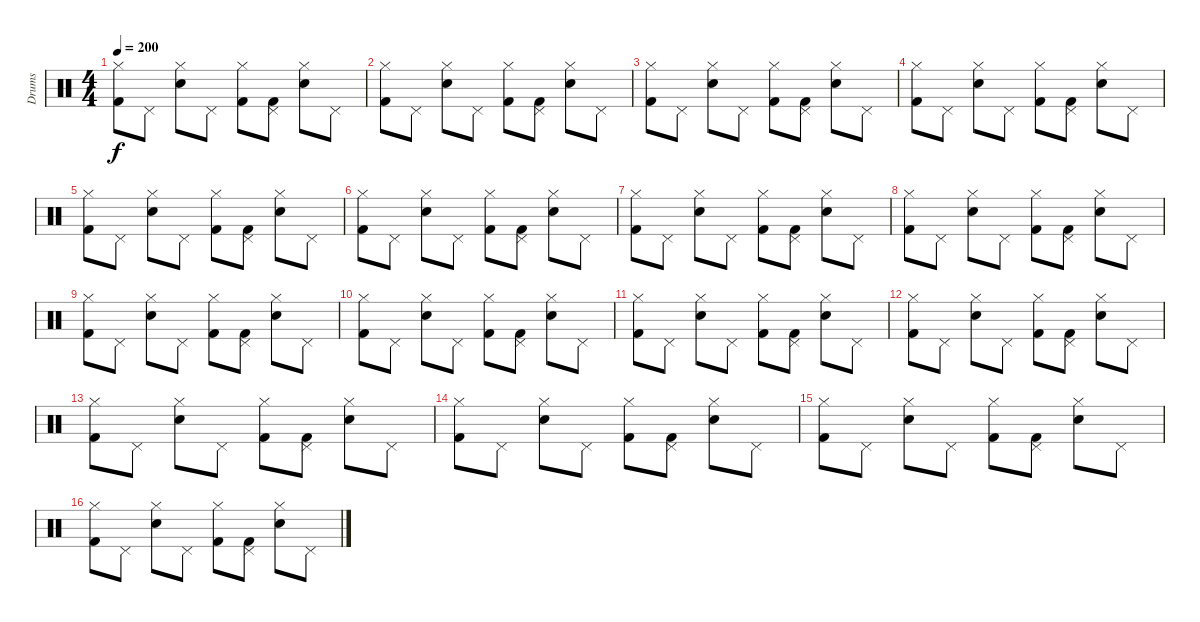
\track ("Drums" "Drums") {instrument percussion}
\staff {score}
\articulation defaults
\ts (4 4)
\tempo 200
\clef neutral
\ks c
("Hi-Hat (closed)" "Kick (hit) 2").8{dy f} "Pedal Hi-Hat (hit)".8 ("Hi-Hat (closed)" "Snare (hit) 2").8 "Pedal Hi-Hat (hit)".8 ("Hi-Hat (closed)" "Kick (hit) 2").8 ("Pedal Hi-Hat (hit)" "Kick (hit) 2").8 ("Hi-Hat (closed)" "Snare (hit) 2").8 "Pedal Hi-Hat (hit)".8 |
("Hi-Hat (closed)" "Kick (hit) 2").8 "Pedal Hi-Hat (hit)".8 ("Hi-Hat (closed)" "Snare (hit) 2").8 "Pedal Hi-Hat (hit)".8 ("Hi-Hat (closed)" "Kick (hit) 2").8 ("Pedal Hi-Hat (hit)" "Kick (hit) 2").8 ("Hi-Hat (closed)" "Snare (hit) 2").8 "Pedal Hi-Hat (hit)".8 |
("Hi-Hat (closed)" "Kick (hit) 2").8 "Pedal Hi-Hat (hit)".8 ("Hi-Hat (closed)" "Snare (hit) 2").8 "Pedal Hi-Hat (hit)".8 ("Hi-Hat (closed)" "Kick (hit) 2").8 ("Pedal Hi-Hat (hit)" "Kick (hit) 2").8 ("Hi-Hat (closed)" "Snare (hit) 2").8 "Pedal Hi-Hat (hit)".8 |
("Hi-Hat (closed)" "Kick (hit) 2").8 "Pedal Hi-Hat (hit)".8 ("Hi-Hat (closed)" "Snare (hit) 2").8 "Pedal Hi-Hat (hit)".8 ("Hi-Hat (closed)" "Kick (hit) 2").8 ("Pedal Hi-Hat (hit)" "Kick (hit) 2").8 ("Hi-Hat (closed)" "Snare (hit) 2").8 "Pedal Hi-Hat (hit)".8 |
("Hi-Hat (closed)" "Kick (hit) 2").8 "Pedal Hi-Hat (hit)".8 ("Hi-Hat (closed)" "Snare (hit) 2").8 "Pedal Hi-Hat (hit)".8 ("Hi-Hat (closed)" "Kick (hit) 2").8 ("Pedal Hi-Hat (hit)" "Kick (hit) 2").8 ("Hi-Hat (closed)" "Snare (hit) 2").8 "Pedal Hi-Hat (hit)".8 |
("Hi-Hat (closed)" "Kick (hit) 2").8 "Pedal Hi-Hat (hit)".8 ("Hi-Hat (closed)" "Snare (hit) 2").8 "Pedal Hi-Hat (hit)".8 ("Hi-Hat (closed)" "Kick (hit) 2").8 ("Pedal Hi-Hat (hit)" "Kick (hit) 2").8 ("Hi-Hat (closed)" "Snare (hit) 2").8 "Pedal Hi-Hat (hit)".8 |
("Hi-Hat (closed)" "Kick (hit) 2").8 "Pedal Hi-Hat (hit)".8 ("Hi-Hat (closed)" "Snare (hit) 2").8 "Pedal Hi-Hat (hit)".8 ("Hi-Hat (closed)" "Kick (hit) 2").8 ("Pedal Hi-Hat (hit)" "Kick (hit) 2").8 ("Hi-Hat (closed)" "Snare (hit) 2").8 "Pedal Hi-Hat (hit)".8 |
("Hi-Hat (closed)" "Kick (hit) 2").8 "Pedal Hi-Hat (hit)".8 ("Hi-Hat (closed)" "Snare (hit) 2").8 "Pedal Hi-Hat (hit)".8 ("Hi-Hat (closed)" "Kick (hit) 2").8 ("Pedal Hi-Hat (hit)" "Kick (hit) 2").8 ("Hi-Hat (closed)" "Snare (hit) 2").8 "Pedal Hi-Hat (hit)".8 |
("Hi-Hat (closed)" "Kick (hit) 2").8 "Pedal Hi-Hat (hit)".8 ("Hi-Hat (closed)" "Snare (hit) 2").8 "Pedal Hi-Hat (hit)".8 ("Hi-Hat (closed)" "Kick (hit) 2").8 ("Pedal Hi-Hat (hit)" "Kick (hit) 2").8 ("Hi-Hat (closed)" "Snare (hit) 2").8 "Pedal Hi-Hat (hit)".8 |
("Hi-Hat (closed)" "Kick (hit) 2").8 "Pedal Hi-Hat (hit)".8 ("Hi-Hat (closed)" "Snare (hit) 2").8 "Pedal Hi-Hat (hit)".8 ("Hi-Hat (closed)" "Kick (hit) 2").8 ("Pedal Hi-Hat (hit)" "Kick (hit) 2").8 ("Hi-Hat (closed)" "Snare (hit) 2").8 "Pedal Hi-Hat (hit)".8 |
("Hi-Hat (closed)" "Kick (hit) 2").8 "Pedal Hi-Hat (hit)".8 ("Hi-Hat (closed)" "Snare (hit) 2").8 "Pedal Hi-Hat (hit)".8 ("Hi-Hat (closed)" "Kick (hit) 2").8 ("Pedal Hi-Hat (hit)" "Kick (hit) 2").8 ("Hi-Hat (closed)" "Snare (hit) 2").8 "Pedal Hi-Hat (hit)".8 |
("Hi-Hat (closed)" "Kick (hit) 2").8 "Pedal Hi-Hat (hit)".8 ("Hi-Hat (closed)" "Snare (hit) 2").8 "Pedal Hi-Hat (hit)".8 ("Hi-Hat (closed)" "Kick (hit) 2").8 ("Pedal Hi-Hat (hit)" "Kick (hit) 2").8 ("Hi-Hat (closed)" "Snare (hit) 2").8 "Pedal Hi-Hat (hit)".8 |
("Hi-Hat (closed)" "Kick (hit) 2").8 "Pedal Hi-Hat (hit)".8 ("Hi-Hat (closed)" "Snare (hit) 2").8 "Pedal Hi-Hat (hit)".8 ("Hi-Hat (closed)" "Kick (hit) 2").8 ("Pedal Hi-Hat (hit)" "Kick (hit) 2").8 ("Hi-Hat (closed)" "Snare (hit) 2").8 "Pedal Hi-Hat (hit)".8 |
("Hi-Hat (closed)" "Kick (hit) 2").8 "Pedal Hi-Hat (hit)".8 ("Hi-Hat (closed)" "Snare (hit) 2").8 "Pedal Hi-Hat (hit)".8 ("Hi-Hat (closed)" "Kick (hit) 2").8 ("Pedal Hi-Hat (hit)" "Kick (hit) 2").8 ("Hi-Hat (closed)" "Snare (hit) 2").8 "Pedal Hi-Hat (hit)".8 |
("Hi-Hat (closed)" "Kick (hit) 2").8 "Pedal Hi-Hat (hit)".8 ("Hi-Hat (closed)" "Snare (hit) 2").8 "Pedal Hi-Hat (hit)".8 ("Hi-Hat (closed)" "Kick (hit) 2").8 ("Pedal Hi-Hat (hit)" "Kick (hit) 2").8 ("Hi-Hat (closed)" "Snare (hit) 2").8 "Pedal Hi-Hat (hit)".8 |
("Hi-Hat (closed)" "Kick (hit) 2").8 "Pedal Hi-Hat (hit)".8 ("Hi-Hat (closed)" "Snare (hit) 2").8 "Pedal Hi-Hat (hit)".8 ("Hi-Hat (closed)" "Kick (hit) 2").8 ("Pedal Hi-Hat (hit)" "Kick (hit) 2").8 ("Hi-Hat (closed)" "Snare (hit) 2").8 "Pedal Hi-Hat (hit)".8
